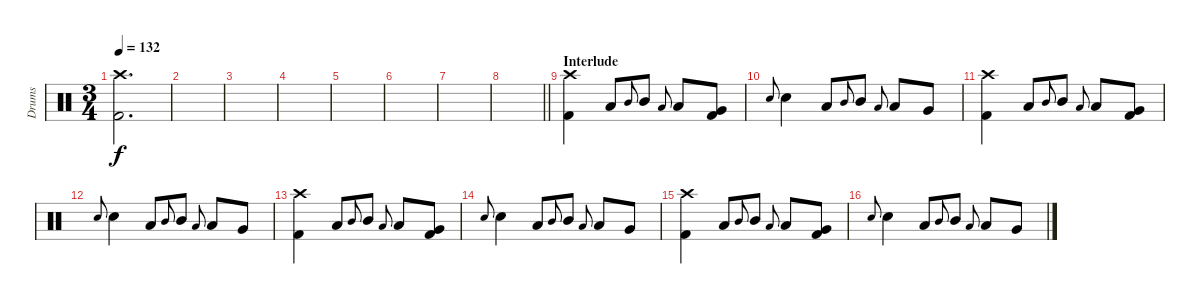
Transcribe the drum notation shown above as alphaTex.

\track ("Drums" "Drums") {instrument percussion}
\staff {score}
\articulation defaults
\ts (3 4)
\tempo 132
\clef neutral
\ks c
("Crash high (hit)" "Kick (hit) 2").2{d dy f} |
|
|
|
|
|
|
\barLineRight lightlight
|
\section ("" "Interlude")
("Crash high (hit)" "Kick (hit) 2").4{volume 9} "Low Floor Tom (hit)".8 "Mid Tom (hit)".8{gr onbeat} "Mid Tom (hit)".8 "Low Tom (hit)".8{gr onbeat} "Low Tom (hit)".8 ("Very Low Tom (hit)" "Kick (hit) 2").8 |
"Snare (hit) 2".8{gr onbeat} "Snare (hit) 2".4 "Low Floor Tom (hit)".8 "Mid Tom (hit)".8{gr onbeat} "Mid Tom (hit)".8 "Low Tom (hit)".8{gr onbeat} "Low Tom (hit)".8 "Very Low Tom (hit)".8 |
("Crash high (hit)" "Kick (hit) 2").4 "Low Floor Tom (hit)".8 "Mid Tom (hit)".8{gr onbeat} "Mid Tom (hit)".8 "Low Tom (hit)".8{gr onbeat} "Low Tom (hit)".8 ("Very Low Tom (hit)" "Kick (hit) 2").8 |
"Snare (hit) 2".8{gr onbeat} "Snare (hit) 2".4 "Low Floor Tom (hit)".8 "Mid Tom (hit)".8{gr onbeat} "Mid Tom (hit)".8 "Low Tom (hit)".8{gr onbeat} "Low Tom (hit)".8 "Very Low Tom (hit)".8 |
("Crash high (hit)" "Kick (hit) 2").4 "Low Floor Tom (hit)".8 "Mid Tom (hit)".8{gr onbeat} "Mid Tom (hit)".8 "Low Tom (hit)".8{gr onbeat} "Low Tom (hit)".8 ("Very Low Tom (hit)" "Kick (hit) 2").8 |
"Snare (hit) 2".8{gr onbeat} "Snare (hit) 2".4 "Low Floor Tom (hit)".8 "Mid Tom (hit)".8{gr onbeat} "Mid Tom (hit)".8 "Low Tom (hit)".8{gr onbeat} "Low Tom (hit)".8 "Very Low Tom (hit)".8 |
("Crash high (hit)" "Kick (hit) 2").4 "Low Floor Tom (hit)".8 "Mid Tom (hit)".8{gr onbeat} "Mid Tom (hit)".8 "Low Tom (hit)".8{gr onbeat} "Low Tom (hit)".8 ("Very Low Tom (hit)" "Kick (hit) 2").8 |
"Snare (hit) 2".8{gr onbeat} "Snare (hit) 2".4 "Low Floor Tom (hit)".8 "Mid Tom (hit)".8{gr onbeat} "Mid Tom (hit)".8 "Low Tom (hit)".8{gr onbeat} "Low Tom (hit)".8 "Very Low Tom (hit)".8
